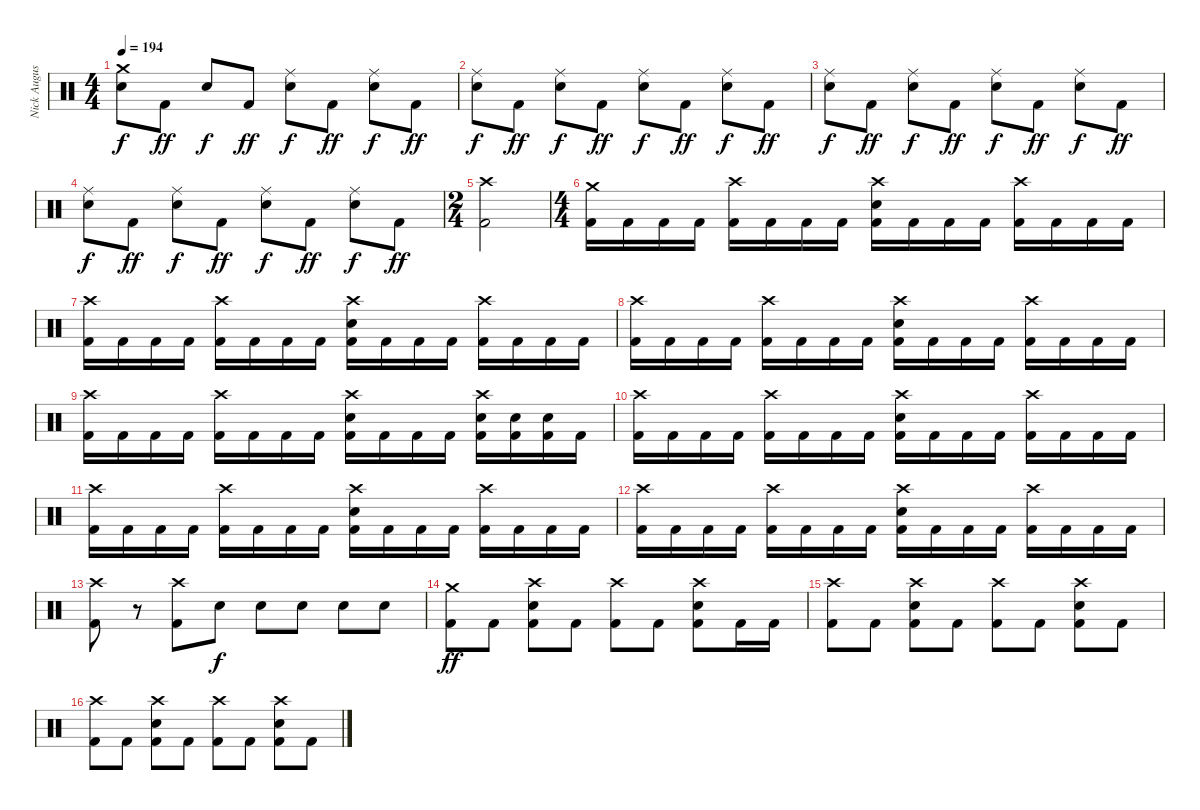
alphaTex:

\track ("Nick Augusto" "Nick Augus") {instrument percussion}
\staff {score}
\articulation defaults
\ts (4 4)
\tempo 194
\clef neutral
\ks c
("Crash medium (hit)" "Electric Snare (hit)").8{dy f} "Kick (hit) 2".8{dy ff} "Electric Snare (hit)".8{dy f} "Kick (hit) 2".8{dy ff} ("Ride (middle)" "Electric Snare (hit)").8{dy f} "Kick (hit) 2".8{dy ff} ("Ride (middle)" "Electric Snare (hit)").8{dy f} "Kick (hit) 2".8{dy ff} |
("Ride (middle)" "Electric Snare (hit)").8{dy f} "Kick (hit) 2".8{dy ff} ("Ride (middle)" "Electric Snare (hit)").8{dy f} "Kick (hit) 2".8{dy ff} ("Ride (middle)" "Electric Snare (hit)").8{dy f} "Kick (hit) 2".8{dy ff} ("Ride (middle)" "Electric Snare (hit)").8{dy f} "Kick (hit) 2".8{dy ff} |
("Ride (middle)" "Electric Snare (hit)").8{dy f} "Kick (hit) 2".8{dy ff} ("Ride (middle)" "Electric Snare (hit)").8{dy f} "Kick (hit) 2".8{dy ff} ("Ride (middle)" "Electric Snare (hit)").8{dy f} "Kick (hit) 2".8{dy ff} ("Ride (middle)" "Electric Snare (hit)").8{dy f} "Kick (hit) 2".8{dy ff} |
("Ride (middle)" "Electric Snare (hit)").8{dy f} "Kick (hit) 2".8{dy ff} ("Ride (middle)" "Electric Snare (hit)").8{dy f} "Kick (hit) 2".8{dy ff} ("Ride (middle)" "Electric Snare (hit)").8{dy f} "Kick (hit) 2".8{dy ff} ("Ride (middle)" "Electric Snare (hit)").8{dy f} "Kick (hit) 2".8{dy ff} |
\ts (2 4)
("Crash high (hit)" "Kick (hit) 2").2 |
\ts (4 4)
("Crash medium (hit)" "Kick (hit) 2").16 "Kick (hit) 2".16 "Kick (hit) 2".16 "Kick (hit) 2".16 ("Crash high (hit)" "Kick (hit) 2").16 "Kick (hit) 2".16 "Kick (hit) 2".16 "Kick (hit) 2".16 ("Crash high (hit)" "Electric Snare (hit)" "Kick (hit) 2").16 "Kick (hit) 2".16 "Kick (hit) 2".16 "Kick (hit) 2".16 ("Crash high (hit)" "Kick (hit) 2").16 "Kick (hit) 2".16 "Kick (hit) 2".16 "Kick (hit) 2".16 |
("Crash high (hit)" "Kick (hit) 2").16 "Kick (hit) 2".16 "Kick (hit) 2".16 "Kick (hit) 2".16 ("Crash high (hit)" "Kick (hit) 2").16 "Kick (hit) 2".16 "Kick (hit) 2".16 "Kick (hit) 2".16 ("Crash high (hit)" "Electric Snare (hit)" "Kick (hit) 2").16 "Kick (hit) 2".16 "Kick (hit) 2".16 "Kick (hit) 2".16 ("Crash high (hit)" "Kick (hit) 2").16 "Kick (hit) 2".16 "Kick (hit) 2".16 "Kick (hit) 2".16 |
("Crash high (hit)" "Kick (hit) 2").16 "Kick (hit) 2".16 "Kick (hit) 2".16 "Kick (hit) 2".16 ("Crash high (hit)" "Kick (hit) 2").16 "Kick (hit) 2".16 "Kick (hit) 2".16 "Kick (hit) 2".16 ("Crash high (hit)" "Electric Snare (hit)" "Kick (hit) 2").16 "Kick (hit) 2".16 "Kick (hit) 2".16 "Kick (hit) 2".16 ("Crash high (hit)" "Kick (hit) 2").16 "Kick (hit) 2".16 "Kick (hit) 2".16 "Kick (hit) 2".16 |
("Crash high (hit)" "Kick (hit) 2").16 "Kick (hit) 2".16 "Kick (hit) 2".16 "Kick (hit) 2".16 ("Crash high (hit)" "Kick (hit) 2").16 "Kick (hit) 2".16 "Kick (hit) 2".16 "Kick (hit) 2".16 ("Crash high (hit)" "Electric Snare (hit)" "Kick (hit) 2").16 "Kick (hit) 2".16 "Kick (hit) 2".16 "Kick (hit) 2".16 ("Crash high (hit)" "Electric Snare (hit)" "Kick (hit) 2").16 ("Electric Snare (hit)" "Kick (hit) 2").16 ("Electric Snare (hit)" "Kick (hit) 2").16 "Kick (hit) 2".16 |
("Crash high (hit)" "Kick (hit) 2").16 "Kick (hit) 2".16 "Kick (hit) 2".16 "Kick (hit) 2".16 ("Crash high (hit)" "Kick (hit) 2").16 "Kick (hit) 2".16 "Kick (hit) 2".16 "Kick (hit) 2".16 ("Crash high (hit)" "Electric Snare (hit)" "Kick (hit) 2").16 "Kick (hit) 2".16 "Kick (hit) 2".16 "Kick (hit) 2".16 ("Crash high (hit)" "Kick (hit) 2").16 "Kick (hit) 2".16 "Kick (hit) 2".16 "Kick (hit) 2".16 |
("Crash high (hit)" "Kick (hit) 2").16 "Kick (hit) 2".16 "Kick (hit) 2".16 "Kick (hit) 2".16 ("Crash high (hit)" "Kick (hit) 2").16 "Kick (hit) 2".16 "Kick (hit) 2".16 "Kick (hit) 2".16 ("Crash high (hit)" "Electric Snare (hit)" "Kick (hit) 2").16 "Kick (hit) 2".16 "Kick (hit) 2".16 "Kick (hit) 2".16 ("Crash high (hit)" "Kick (hit) 2").16 "Kick (hit) 2".16 "Kick (hit) 2".16 "Kick (hit) 2".16 |
("Crash high (hit)" "Kick (hit) 2").16 "Kick (hit) 2".16 "Kick (hit) 2".16 "Kick (hit) 2".16 ("Crash high (hit)" "Kick (hit) 2").16 "Kick (hit) 2".16 "Kick (hit) 2".16 "Kick (hit) 2".16 ("Crash high (hit)" "Electric Snare (hit)" "Kick (hit) 2").16 "Kick (hit) 2".16 "Kick (hit) 2".16 "Kick (hit) 2".16 ("Crash high (hit)" "Kick (hit) 2").16 "Kick (hit) 2".16 "Kick (hit) 2".16 "Kick (hit) 2".16 |
("Crash high (hit)" "Kick (hit) 2").8 r.8 ("Crash high (hit)" "Kick (hit) 2").8 "Electric Snare (hit)".8{dy f} "Electric Snare (hit)".8 "Electric Snare (hit)".8 "Electric Snare (hit)".8 "Electric Snare (hit)".8 |
("Crash medium (hit)" "Kick (hit) 2").8{dy ff} "Kick (hit) 2".8 ("Crash high (hit)" "Electric Snare (hit)" "Kick (hit) 2").8 "Kick (hit) 2".8 ("Crash high (hit)" "Kick (hit) 2").8 "Kick (hit) 2".8 ("Crash high (hit)" "Electric Snare (hit)" "Kick (hit) 2").8 "Kick (hit) 2".16 "Kick (hit) 2".16 |
("Crash high (hit)" "Kick (hit) 2").8 "Kick (hit) 2".8 ("Crash high (hit)" "Electric Snare (hit)" "Kick (hit) 2").8 "Kick (hit) 2".8 ("Crash high (hit)" "Kick (hit) 2").8 "Kick (hit) 2".8 ("Crash high (hit)" "Electric Snare (hit)" "Kick (hit) 2").8 "Kick (hit) 2".8 |
("Crash high (hit)" "Kick (hit) 2").8 "Kick (hit) 2".8 ("Crash high (hit)" "Electric Snare (hit)" "Kick (hit) 2").8 "Kick (hit) 2".8 ("Crash high (hit)" "Kick (hit) 2").8 "Kick (hit) 2".8 ("Crash high (hit)" "Electric Snare (hit)" "Kick (hit) 2").8 "Kick (hit) 2".8
